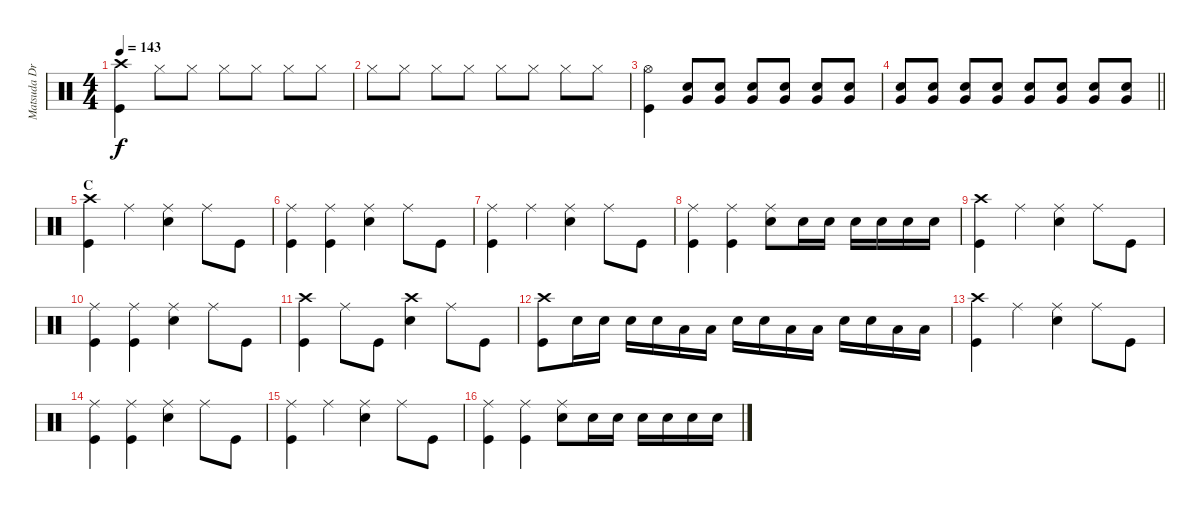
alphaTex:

\track ("Matsuda Drums" "Matsuda Dr") {instrument percussion}
\staff {score}
\articulation defaults
\ts (4 4)
\tempo 143
\clef neutral
\ks c
("Crash high (hit)" "Kick (hit)").4{dy f} "Hi-Hat (closed)".8 "Hi-Hat (closed)".8 "Hi-Hat (closed)".8 "Hi-Hat (closed)".8 "Hi-Hat (closed)".8 "Hi-Hat (closed)".8 |
"Hi-Hat (closed)".8 "Hi-Hat (closed)".8 "Hi-Hat (closed)".8 "Hi-Hat (closed)".8 "Hi-Hat (closed)".8 "Hi-Hat (closed)".8 "Hi-Hat (closed)".8 "Hi-Hat (closed)".8 |
("Hi-Hat (open)" "Kick (hit)").4 ("Snare (hit) 2" "Very Low Tom (hit)").8 ("Snare (hit) 2" "Very Low Tom (hit)").8 ("Snare (hit) 2" "Very Low Tom (hit)").8 ("Snare (hit) 2" "Very Low Tom (hit)").8 ("Snare (hit) 2" "Very Low Tom (hit)").8 ("Snare (hit) 2" "Very Low Tom (hit)").8 |
\barLineRight lightlight
("Snare (hit) 2" "Very Low Tom (hit)").8 ("Snare (hit) 2" "Very Low Tom (hit)").8 ("Snare (hit) 2" "Very Low Tom (hit)").8 ("Snare (hit) 2" "Very Low Tom (hit)").8 ("Snare (hit) 2" "Very Low Tom (hit)").8 ("Snare (hit) 2" "Very Low Tom (hit)").8 ("Snare (hit) 2" "Very Low Tom (hit)").8 ("Snare (hit) 2" "Very Low Tom (hit)").8 |
\section ("" "C")
("Crash high (hit)" "Kick (hit)").4 "Ride (middle)".4 ("Ride (middle)" "Snare (hit) 2").4 "Ride (middle)".8 "Kick (hit)".8 |
("Ride (middle)" "Kick (hit)").4 ("Ride (middle)" "Kick (hit)").4 ("Ride (middle)" "Snare (hit) 2").4 "Ride (middle)".8 "Kick (hit)".8 |
("Ride (middle)" "Kick (hit)").4 "Ride (middle)".4 ("Ride (middle)" "Snare (hit) 2").4 "Ride (middle)".8 "Kick (hit)".8 |
("Ride (middle)" "Kick (hit)").4 ("Ride (middle)" "Kick (hit)").4 ("Ride (middle)" "Snare (hit) 2").8 "Snare (hit) 2".16 "Snare (hit) 2".16 "Snare (hit) 2".16 "Snare (hit) 2".16 "Snare (hit) 2".16 "Snare (hit) 2".16 |
("Crash high (hit)" "Kick (hit)").4 "Ride (middle)".4 ("Ride (middle)" "Snare (hit) 2").4 "Ride (middle)".8 "Kick (hit)".8 |
("Ride (middle)" "Kick (hit)").4 ("Ride (middle)" "Kick (hit)").4 ("Ride (middle)" "Snare (hit) 2").4 "Ride (middle)".8 "Kick (hit)".8 |
("Crash high (hit)" "Kick (hit)").4 "Ride (middle)".8 "Kick (hit)".8 ("Crash high (hit)" "Snare (hit) 2").4 "Ride (middle)".8 "Kick (hit)".8 |
("Crash high (hit)" "Kick (hit)").8 "Snare (hit) 2".16 "Snare (hit) 2".16 "Snare (hit) 2".16 "Snare (hit) 2".16 "Low Tom (hit)".16 "Low Tom (hit)".16 "Snare (hit) 2".16 "Snare (hit) 2".16 "Low Tom (hit)".16 "Low Tom (hit)".16 "Snare (hit) 2".16 "Snare (hit) 2".16 "Low Tom (hit)".16 "Low Tom (hit)".16 |
("Crash high (hit)" "Kick (hit)").4 "Ride (middle)".4 ("Ride (middle)" "Snare (hit) 2").4 "Ride (middle)".8 "Kick (hit)".8 |
("Ride (middle)" "Kick (hit)").4 ("Ride (middle)" "Kick (hit)").4 ("Ride (middle)" "Snare (hit) 2").4 "Ride (middle)".8 "Kick (hit)".8 |
("Ride (middle)" "Kick (hit)").4 "Ride (middle)".4 ("Ride (middle)" "Snare (hit) 2").4 "Ride (middle)".8 "Kick (hit)".8 |
("Ride (middle)" "Kick (hit)").4 ("Ride (middle)" "Kick (hit)").4 ("Ride (middle)" "Snare (hit) 2").8 "Snare (hit) 2".16 "Snare (hit) 2".16 "Snare (hit) 2".16 "Snare (hit) 2".16 "Snare (hit) 2".16 "Snare (hit) 2".16
